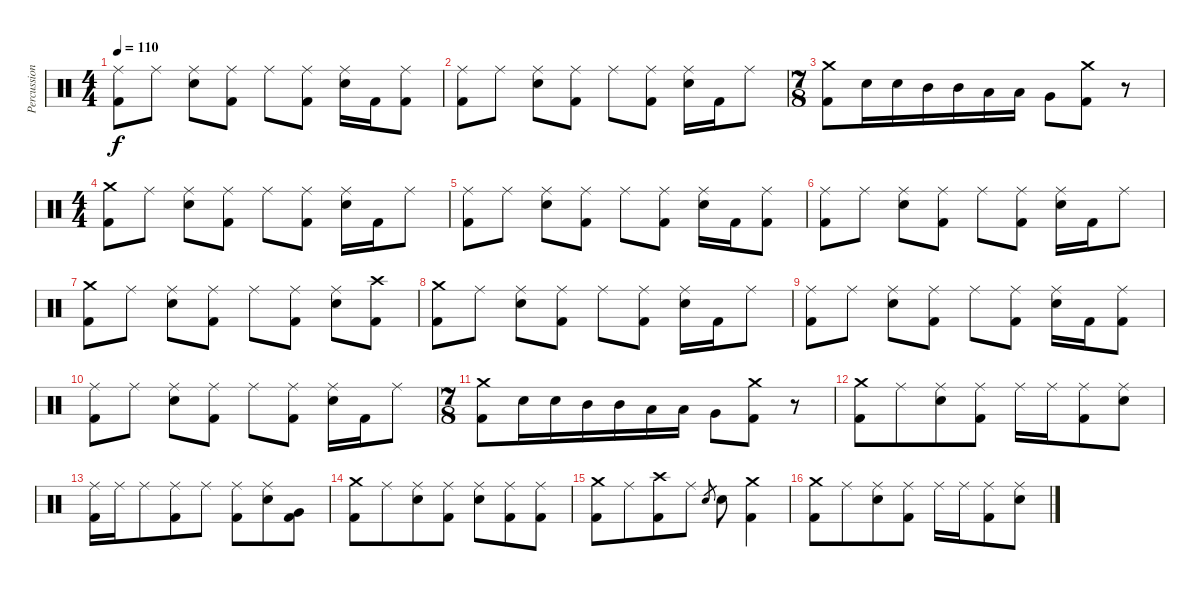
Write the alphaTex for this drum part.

\track ("Percussion" "Percussion") {instrument percussion}
\staff {score}
\articulation defaults
\ts (4 4)
\tempo 110
\clef neutral
\ks c
("Ride (middle)" "Kick (hit) 2").8{dy f} "Ride (middle)".8 ("Ride (middle)" "Electric Snare (hit)").8 ("Ride (middle)" "Kick (hit) 2").8 "Ride (middle)".8 ("Ride (middle)" "Kick (hit) 2").8 ("Ride (middle)" "Electric Snare (hit)").16 "Kick (hit) 2".16 ("Ride (middle)" "Kick (hit) 2").8 |
("Ride (middle)" "Kick (hit) 2").8 "Ride (middle)".8 ("Ride (middle)" "Electric Snare (hit)").8 ("Ride (middle)" "Kick (hit) 2").8 "Ride (middle)".8 ("Ride (middle)" "Kick (hit) 2").8 ("Ride (middle)" "Electric Snare (hit)").16 "Kick (hit) 2".16 "Ride (middle)".8 |
\ts (7 8)
("Crash medium (hit)" "Kick (hit) 2").8 "Electric Snare (hit)".16 "Electric Snare (hit)".16 "Mid Tom (hit)".16 "Mid Tom (hit)".16 "Low Tom (hit)".16 "Low Tom (hit)".16 "Very Low Tom (hit)".8 ("Crash medium (hit)" "Kick (hit) 2").8 r.8 |
\ts (4 4)
("Crash medium (hit)" "Kick (hit) 2").8 "Ride (middle)".8 ("Ride (middle)" "Electric Snare (hit)").8 ("Ride (middle)" "Kick (hit) 2").8 "Ride (middle)".8 ("Ride (middle)" "Kick (hit) 2").8 ("Ride (middle)" "Electric Snare (hit)").16 "Kick (hit) 2".16 "Ride (middle)".8 |
("Ride (middle)" "Kick (hit) 2").8 "Ride (middle)".8 ("Ride (middle)" "Electric Snare (hit)").8 ("Ride (middle)" "Kick (hit) 2").8 "Ride (middle)".8 ("Ride (middle)" "Kick (hit) 2").8 ("Ride (middle)" "Electric Snare (hit)").16 "Kick (hit) 2".16 ("Ride (middle)" "Kick (hit) 2").8 |
("Ride (middle)" "Kick (hit) 2").8 "Ride (middle)".8 ("Ride (middle)" "Electric Snare (hit)").8 ("Ride (middle)" "Kick (hit) 2").8 "Ride (middle)".8 ("Ride (middle)" "Kick (hit) 2").8 ("Ride (middle)" "Electric Snare (hit)").16 "Kick (hit) 2".16 "Ride (middle)".8 |
("Crash medium (hit)" "Kick (hit) 2").8 "Ride (middle)".8 ("Ride (middle)" "Electric Snare (hit)").8 ("Ride (middle)" "Kick (hit) 2").8 "Ride (middle)".8 ("Ride (middle)" "Kick (hit) 2").8 ("Ride (middle)" "Electric Snare (hit)").8 ("Crash high (hit)" "Kick (hit) 2").8 |
("Crash medium (hit)" "Kick (hit) 2").8 "Ride (middle)".8 ("Ride (middle)" "Electric Snare (hit)").8 ("Ride (middle)" "Kick (hit) 2").8 "Ride (middle)".8 ("Ride (middle)" "Kick (hit) 2").8 ("Ride (middle)" "Electric Snare (hit)").16 "Kick (hit) 2".16 "Ride (middle)".8 |
("Ride (middle)" "Kick (hit) 2").8 "Ride (middle)".8 ("Ride (middle)" "Electric Snare (hit)").8 ("Ride (middle)" "Kick (hit) 2").8 "Ride (middle)".8 ("Ride (middle)" "Kick (hit) 2").8 ("Ride (middle)" "Electric Snare (hit)").16 "Kick (hit) 2".16 ("Ride (middle)" "Kick (hit) 2").8 |
("Ride (middle)" "Kick (hit) 2").8 "Ride (middle)".8 ("Ride (middle)" "Electric Snare (hit)").8 ("Ride (middle)" "Kick (hit) 2").8 "Ride (middle)".8 ("Ride (middle)" "Kick (hit) 2").8 ("Ride (middle)" "Electric Snare (hit)").16 "Kick (hit) 2".16 "Ride (middle)".8 |
\ts (7 8)
("Crash medium (hit)" "Kick (hit) 2").8 "Electric Snare (hit)".16 "Electric Snare (hit)".16 "Mid Tom (hit)".16 "Mid Tom (hit)".16 "Low Tom (hit)".16 "Low Tom (hit)".16 "Very Low Tom (hit)".8 ("Crash medium (hit)" "Kick (hit) 2").8 r.8 |
("Crash medium (hit)" "Kick (hit) 2").8 "Ride (middle)".8 ("Ride (middle)" "Electric Snare (hit)").8 ("Ride (middle)" "Kick (hit) 2").8 "Ride (middle)".16 "Ride (middle)".16 ("Ride (middle)" "Kick (hit) 2").8 ("Ride (middle)" "Electric Snare (hit)").8 |
("Ride (middle)" "Kick (hit) 2").16 "Ride (middle)".16 "Ride (middle)".8 ("Ride (middle)" "Kick (hit) 2").8 "Ride (middle)".8 ("Ride (middle)" "Kick (hit) 2").8 ("Ride (middle)" "Electric Snare (hit)").8 ("Kick (hit) 2" "Very Low Tom (hit)").8 |
("Crash medium (hit)" "Kick (hit) 2").8 "Ride (middle)".8 ("Ride (middle)" "Electric Snare (hit)").8 ("Ride (middle)" "Kick (hit) 2").8 ("Ride (middle)" "Electric Snare (hit)").8 ("Ride (middle)" "Kick (hit) 2").8 ("Ride (middle)" "Kick (hit) 2").8 |
("Crash medium (hit)" "Kick (hit) 2").8 "Ride (middle)".8 ("Crash high (hit)" "Kick (hit) 2").8 "Ride (middle)".8 "Electric Snare (hit)".8{gr} "Electric Snare (hit)".8 ("Crash medium (hit)" "Kick (hit) 2").4 |
("Crash medium (hit)" "Kick (hit) 2").8 "Ride (middle)".8 ("Ride (middle)" "Electric Snare (hit)").8 ("Ride (middle)" "Kick (hit) 2").8 "Ride (middle)".16 "Ride (middle)".16 ("Ride (middle)" "Kick (hit) 2").8 ("Ride (middle)" "Electric Snare (hit)").8
